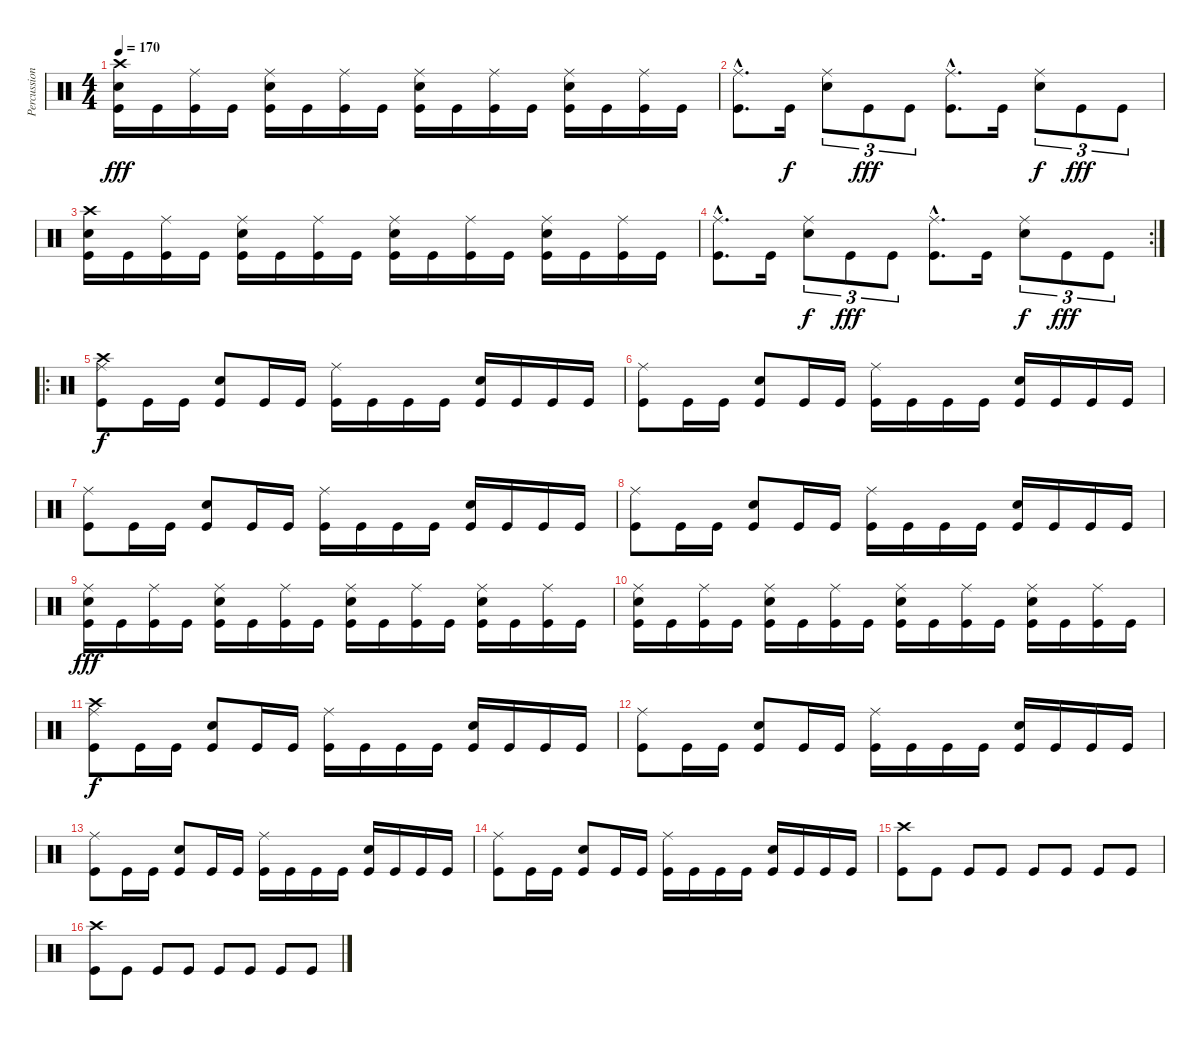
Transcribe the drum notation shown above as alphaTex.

\track ("Percussion" "Percussion") {instrument percussion}
\staff {score}
\articulation defaults
\ts (4 4)
\tempo 170
\clef neutral
\ks c
("Crash high (hit)" "Snare (hit) 2" "Kick (hit)").16{dy fff} "Kick (hit)".16 ("Ride (middle)" "Kick (hit)").16 "Kick (hit)".16 ("Ride (middle)" "Snare (hit) 2" "Kick (hit)").16 "Kick (hit)".16 ("Ride (middle)" "Kick (hit)").16 "Kick (hit)".16 ("Ride (middle)" "Snare (hit) 2" "Kick (hit)").16 "Kick (hit)".16 ("Ride (middle)" "Kick (hit)").16 "Kick (hit)".16 ("Ride (middle)" "Snare (hit) 2" "Kick (hit)").16 "Kick (hit)".16 ("Ride (middle)" "Kick (hit)").16 "Kick (hit)".16 |
("Ride (middle)"{hac} "Kick (hit)"{hac}).8{d} "Kick (hit)".16{dy f} ("Ride (middle)" "Snare (hit) 2").8{tu (3 2)} "Kick (hit)".8{tu (3 2) dy fff} "Kick (hit)".8{tu (3 2)} ("Ride (middle)"{hac} "Kick (hit)"{hac}).8{d} "Kick (hit)".16 ("Ride (middle)" "Snare (hit) 2").8{tu (3 2) dy f} "Kick (hit)".8{tu (3 2) dy fff} "Kick (hit)".8{tu (3 2)} |
("Crash high (hit)" "Snare (hit) 2" "Kick (hit)").16 "Kick (hit)".16 ("Ride (middle)" "Kick (hit)").16 "Kick (hit)".16 ("Ride (middle)" "Snare (hit) 2" "Kick (hit)").16 "Kick (hit)".16 ("Ride (middle)" "Kick (hit)").16 "Kick (hit)".16 ("Ride (middle)" "Snare (hit) 2" "Kick (hit)").16 "Kick (hit)".16 ("Ride (middle)" "Kick (hit)").16 "Kick (hit)".16 ("Ride (middle)" "Snare (hit) 2" "Kick (hit)").16 "Kick (hit)".16 ("Ride (middle)" "Kick (hit)").16 "Kick (hit)".16 |
\rc 2
("Ride (middle)"{hac} "Kick (hit)"{hac}).8{d} "Kick (hit)".16 ("Ride (middle)" "Snare (hit) 2").8{tu (3 2) dy f} "Kick (hit)".8{tu (3 2) dy fff} "Kick (hit)".8{tu (3 2)} ("Ride (middle)"{hac} "Kick (hit)"{hac}).8{d} "Kick (hit)".16 ("Ride (middle)" "Snare (hit) 2").8{tu (3 2) dy f} "Kick (hit)".8{tu (3 2) dy fff} "Kick (hit)".8{tu (3 2)} |
\ro
("Ride (middle)" "Crash high (hit)" "Kick (hit)").8{dy f} "Kick (hit)".16 "Kick (hit)".16 ("Snare (hit) 2" "Kick (hit)").8 "Kick (hit)".16 "Kick (hit)".16 ("Ride (middle)" "Kick (hit)").16 "Kick (hit)".16 "Kick (hit)".16 "Kick (hit)".16 ("Snare (hit) 2" "Kick (hit)").16 "Kick (hit)".16 "Kick (hit)".16 "Kick (hit)".16 |
("Ride (middle)" "Kick (hit)").8 "Kick (hit)".16 "Kick (hit)".16 ("Snare (hit) 2" "Kick (hit)").8 "Kick (hit)".16 "Kick (hit)".16 ("Ride (middle)" "Kick (hit)").16 "Kick (hit)".16 "Kick (hit)".16 "Kick (hit)".16 ("Snare (hit) 2" "Kick (hit)").16 "Kick (hit)".16 "Kick (hit)".16 "Kick (hit)".16 |
("Ride (middle)" "Kick (hit)").8 "Kick (hit)".16 "Kick (hit)".16 ("Snare (hit) 2" "Kick (hit)").8 "Kick (hit)".16 "Kick (hit)".16 ("Ride (middle)" "Kick (hit)").16 "Kick (hit)".16 "Kick (hit)".16 "Kick (hit)".16 ("Snare (hit) 2" "Kick (hit)").16 "Kick (hit)".16 "Kick (hit)".16 "Kick (hit)".16 |
("Ride (middle)" "Kick (hit)").8 "Kick (hit)".16 "Kick (hit)".16 ("Snare (hit) 2" "Kick (hit)").8 "Kick (hit)".16 "Kick (hit)".16 ("Ride (middle)" "Kick (hit)").16 "Kick (hit)".16 "Kick (hit)".16 "Kick (hit)".16 ("Snare (hit) 2" "Kick (hit)").16 "Kick (hit)".16 "Kick (hit)".16 "Kick (hit)".16 |
("Ride (middle)" "Snare (hit) 2" "Kick (hit)").16{dy fff} "Kick (hit)".16 ("Ride (middle)" "Kick (hit)").16 "Kick (hit)".16 ("Ride (middle)" "Snare (hit) 2" "Kick (hit)").16 "Kick (hit)".16 ("Ride (middle)" "Kick (hit)").16 "Kick (hit)".16 ("Ride (middle)" "Snare (hit) 2" "Kick (hit)").16 "Kick (hit)".16 ("Ride (middle)" "Kick (hit)").16 "Kick (hit)".16 ("Ride (middle)" "Snare (hit) 2" "Kick (hit)").16 "Kick (hit)".16 ("Ride (middle)" "Kick (hit)").16 "Kick (hit)".16 |
("Ride (middle)" "Snare (hit) 2" "Kick (hit)").16 "Kick (hit)".16 ("Ride (middle)" "Kick (hit)").16 "Kick (hit)".16 ("Ride (middle)" "Snare (hit) 2" "Kick (hit)").16 "Kick (hit)".16 ("Ride (middle)" "Kick (hit)").16 "Kick (hit)".16 ("Ride (middle)" "Snare (hit) 2" "Kick (hit)").16 "Kick (hit)".16 ("Ride (middle)" "Kick (hit)").16 "Kick (hit)".16 ("Ride (middle)" "Snare (hit) 2" "Kick (hit)").16 "Kick (hit)".16 ("Ride (middle)" "Kick (hit)").16 "Kick (hit)".16 |
("Ride (middle)" "Crash high (hit)" "Kick (hit)").8{dy f} "Kick (hit)".16 "Kick (hit)".16 ("Snare (hit) 2" "Kick (hit)").8 "Kick (hit)".16 "Kick (hit)".16 ("Ride (middle)" "Kick (hit)").16 "Kick (hit)".16 "Kick (hit)".16 "Kick (hit)".16 ("Snare (hit) 2" "Kick (hit)").16 "Kick (hit)".16 "Kick (hit)".16 "Kick (hit)".16 |
("Ride (middle)" "Kick (hit)").8 "Kick (hit)".16 "Kick (hit)".16 ("Snare (hit) 2" "Kick (hit)").8 "Kick (hit)".16 "Kick (hit)".16 ("Ride (middle)" "Kick (hit)").16 "Kick (hit)".16 "Kick (hit)".16 "Kick (hit)".16 ("Snare (hit) 2" "Kick (hit)").16 "Kick (hit)".16 "Kick (hit)".16 "Kick (hit)".16 |
("Ride (middle)" "Kick (hit)").8 "Kick (hit)".16 "Kick (hit)".16 ("Snare (hit) 2" "Kick (hit)").8 "Kick (hit)".16 "Kick (hit)".16 ("Ride (middle)" "Kick (hit)").16 "Kick (hit)".16 "Kick (hit)".16 "Kick (hit)".16 ("Snare (hit) 2" "Kick (hit)").16 "Kick (hit)".16 "Kick (hit)".16 "Kick (hit)".16 |
("Ride (middle)" "Kick (hit)").8 "Kick (hit)".16 "Kick (hit)".16 ("Snare (hit) 2" "Kick (hit)").8 "Kick (hit)".16 "Kick (hit)".16 ("Ride (middle)" "Kick (hit)").16 "Kick (hit)".16 "Kick (hit)".16 "Kick (hit)".16 ("Snare (hit) 2" "Kick (hit)").16 "Kick (hit)".16 "Kick (hit)".16 "Kick (hit)".16 |
("Crash high (hit)" "Kick (hit)").8 "Kick (hit)".8 "Kick (hit)".8 "Kick (hit)".8 "Kick (hit)".8 "Kick (hit)".8 "Kick (hit)".8 "Kick (hit)".8 |
("Crash high (hit)" "Kick (hit)").8 "Kick (hit)".8 "Kick (hit)".8 "Kick (hit)".8 "Kick (hit)".8 "Kick (hit)".8 "Kick (hit)".8 "Kick (hit)".8
